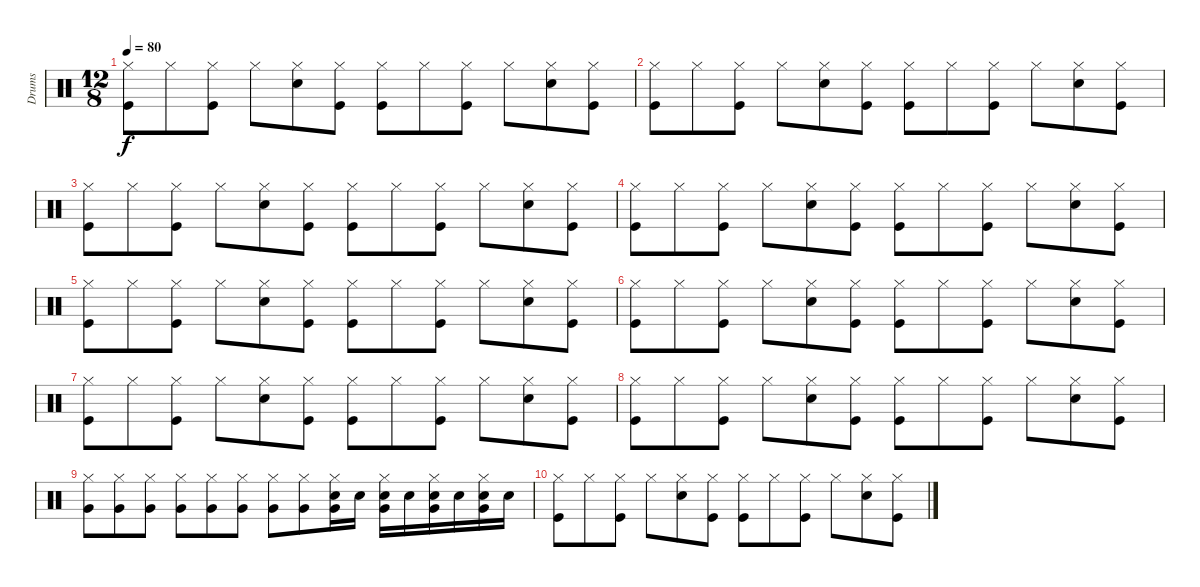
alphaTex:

\track ("Drums" "Drums") {instrument percussion}
\staff {score}
\articulation defaults
\ts (12 8)
\tempo 80
\clef neutral
\ks c
("Hi-Hat (closed)" "Kick (hit)").8{dy f} "Hi-Hat (closed)".8 ("Hi-Hat (closed)" "Kick (hit)").8 "Hi-Hat (closed)".8 ("Hi-Hat (closed)" "Snare (hit) 2").8 ("Hi-Hat (closed)" "Kick (hit)").8 ("Hi-Hat (closed)" "Kick (hit)").8 "Hi-Hat (closed)".8 ("Hi-Hat (closed)" "Kick (hit)").8 "Hi-Hat (closed)".8 ("Hi-Hat (closed)" "Snare (hit) 2").8 ("Hi-Hat (closed)" "Kick (hit)").8 |
("Hi-Hat (closed)" "Kick (hit)").8 "Hi-Hat (closed)".8 ("Hi-Hat (closed)" "Kick (hit)").8 "Hi-Hat (closed)".8 ("Hi-Hat (closed)" "Snare (hit) 2").8 ("Hi-Hat (closed)" "Kick (hit)").8 ("Hi-Hat (closed)" "Kick (hit)").8 "Hi-Hat (closed)".8 ("Hi-Hat (closed)" "Kick (hit)").8 "Hi-Hat (closed)".8 ("Hi-Hat (closed)" "Snare (hit) 2").8 ("Hi-Hat (closed)" "Kick (hit)").8 |
("Hi-Hat (closed)" "Kick (hit)").8 "Hi-Hat (closed)".8 ("Hi-Hat (closed)" "Kick (hit)").8 "Hi-Hat (closed)".8 ("Hi-Hat (closed)" "Snare (hit) 2").8 ("Hi-Hat (closed)" "Kick (hit)").8 ("Hi-Hat (closed)" "Kick (hit)").8 "Hi-Hat (closed)".8 ("Hi-Hat (closed)" "Kick (hit)").8 "Hi-Hat (closed)".8 ("Hi-Hat (closed)" "Snare (hit) 2").8 ("Hi-Hat (closed)" "Kick (hit)").8 |
("Hi-Hat (closed)" "Kick (hit)").8 "Hi-Hat (closed)".8 ("Hi-Hat (closed)" "Kick (hit)").8 "Hi-Hat (closed)".8 ("Hi-Hat (closed)" "Snare (hit) 2").8 ("Hi-Hat (closed)" "Kick (hit)").8 ("Hi-Hat (closed)" "Kick (hit)").8 "Hi-Hat (closed)".8 ("Hi-Hat (closed)" "Kick (hit)").8 "Hi-Hat (closed)".8 ("Hi-Hat (closed)" "Snare (hit) 2").8 ("Hi-Hat (closed)" "Kick (hit)").8 |
("Hi-Hat (closed)" "Kick (hit)").8 "Hi-Hat (closed)".8 ("Hi-Hat (closed)" "Kick (hit)").8 "Hi-Hat (closed)".8 ("Hi-Hat (closed)" "Snare (hit) 2").8 ("Hi-Hat (closed)" "Kick (hit)").8 ("Hi-Hat (closed)" "Kick (hit)").8 "Hi-Hat (closed)".8 ("Hi-Hat (closed)" "Kick (hit)").8 "Hi-Hat (closed)".8 ("Hi-Hat (closed)" "Snare (hit) 2").8 ("Hi-Hat (closed)" "Kick (hit)").8 |
("Hi-Hat (closed)" "Kick (hit)").8 "Hi-Hat (closed)".8 ("Hi-Hat (closed)" "Kick (hit)").8 "Hi-Hat (closed)".8 ("Hi-Hat (closed)" "Snare (hit) 2").8 ("Hi-Hat (closed)" "Kick (hit)").8 ("Hi-Hat (closed)" "Kick (hit)").8 "Hi-Hat (closed)".8 ("Hi-Hat (closed)" "Kick (hit)").8 "Hi-Hat (closed)".8 ("Hi-Hat (closed)" "Snare (hit) 2").8 ("Hi-Hat (closed)" "Kick (hit)").8 |
("Hi-Hat (closed)" "Kick (hit)").8 "Hi-Hat (closed)".8 ("Hi-Hat (closed)" "Kick (hit)").8 "Hi-Hat (closed)".8 ("Hi-Hat (closed)" "Snare (hit) 2").8 ("Hi-Hat (closed)" "Kick (hit)").8 ("Hi-Hat (closed)" "Kick (hit)").8 "Hi-Hat (closed)".8 ("Hi-Hat (closed)" "Kick (hit)").8 "Hi-Hat (closed)".8 ("Hi-Hat (closed)" "Snare (hit) 2").8 ("Hi-Hat (closed)" "Kick (hit)").8 |
("Hi-Hat (closed)" "Kick (hit)").8 "Hi-Hat (closed)".8 ("Hi-Hat (closed)" "Kick (hit)").8 "Hi-Hat (closed)".8 ("Hi-Hat (closed)" "Snare (hit) 2").8 ("Hi-Hat (closed)" "Kick (hit)").8 ("Hi-Hat (closed)" "Kick (hit)").8 "Hi-Hat (closed)".8 ("Hi-Hat (closed)" "Kick (hit)").8 "Hi-Hat (closed)".8 ("Hi-Hat (closed)" "Snare (hit) 2").8 ("Hi-Hat (closed)" "Kick (hit)").8 |
("Hi-Hat (closed)" "Very Low Tom (hit)").8 ("Hi-Hat (closed)" "Very Low Tom (hit)").8 ("Hi-Hat (closed)" "Very Low Tom (hit)").8 ("Hi-Hat (closed)" "Very Low Tom (hit)").8 ("Hi-Hat (closed)" "Very Low Tom (hit)").8 ("Hi-Hat (closed)" "Very Low Tom (hit)").8 ("Hi-Hat (closed)" "Very Low Tom (hit)").8 ("Hi-Hat (closed)" "Very Low Tom (hit)").8 ("Hi-Hat (closed)" "Very Low Tom (hit)" "Snare (hit) 2").16 "Snare (hit) 2".16 ("Hi-Hat (closed)" "Very Low Tom (hit)" "Snare (hit) 2").16 "Snare (hit) 2".16 ("Hi-Hat (closed)" "Very Low Tom (hit)" "Snare (hit) 2").16 "Snare (hit) 2".16 ("Hi-Hat (closed)" "Very Low Tom (hit)" "Snare (hit) 2").16 "Snare (hit) 2".16 |
("Hi-Hat (closed)" "Kick (hit)").8 "Hi-Hat (closed)".8 ("Hi-Hat (closed)" "Kick (hit)").8 "Hi-Hat (closed)".8 ("Hi-Hat (closed)" "Snare (hit) 2").8 ("Hi-Hat (closed)" "Kick (hit)").8 ("Hi-Hat (closed)" "Kick (hit)").8 "Hi-Hat (closed)".8 ("Hi-Hat (closed)" "Kick (hit)").8 "Hi-Hat (closed)".8 ("Hi-Hat (closed)" "Snare (hit) 2").8 ("Hi-Hat (closed)" "Kick (hit)").8
